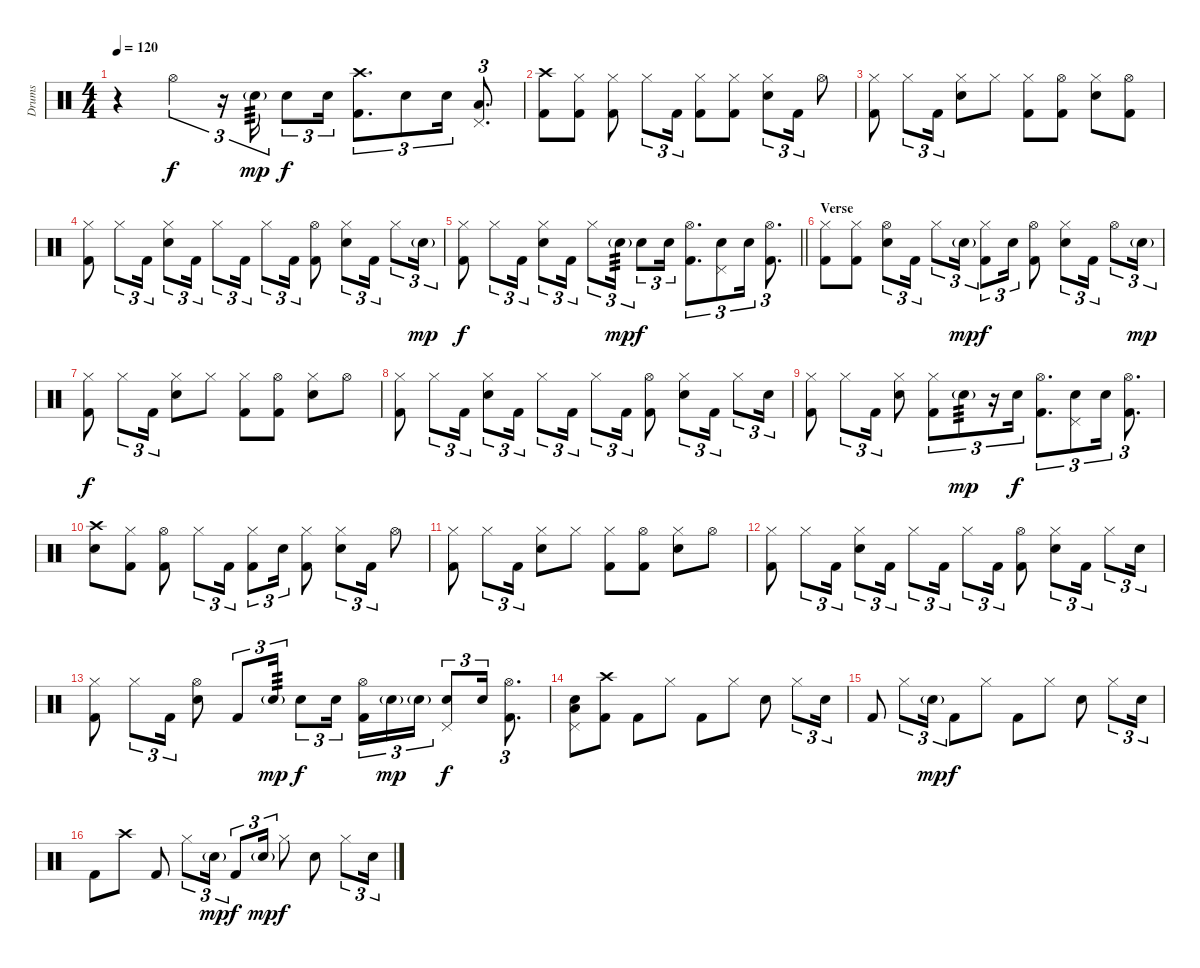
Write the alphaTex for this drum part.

\track ("Drums" "Drums") {instrument percussion}
\staff {score}
\articulation defaults
\ts (4 4)
\tempo 120
\clef neutral
\ks c
r.4{dy f} "Hi-Hat (open)".4{tu (3 2)} r.16{tu (3 2)} "Electric Snare (hit)"{g}.16{tu (3 2) tp 3 dy mp} "Electric Snare (hit)".8{tu (3 2) dy f} "Electric Snare (hit)".16{tu (3 2)} ("Crash high (hit)" "Kick (hit) 2").8{d tu (3 2)} "Electric Snare (hit)".8{tu (3 2)} "Electric Snare (hit)".16{tu (3 2)} ("Pedal Hi-Hat (hit)" "Low Tom (hit)").8{d tu (3 2)} |
("Crash high (hit)" "Kick (hit) 2").8 ("Hi-Hat (closed)" "Kick (hit) 2").8 ("Hi-Hat (closed)" "Kick (hit) 2").8 "Hi-Hat (closed)".8{tu (3 2)} "Kick (hit) 2".16{tu (3 2)} ("Hi-Hat (closed)" "Kick (hit) 2").8 ("Hi-Hat (closed)" "Kick (hit) 2").8 ("Hi-Hat (closed)" "Electric Snare (hit)").8{tu (3 2)} "Kick (hit) 2".16{tu (3 2)} "Hi-Hat (open)".8 |
("Hi-Hat (closed)" "Kick (hit) 2").8 "Hi-Hat (closed)".8{tu (3 2)} "Kick (hit) 2".16{tu (3 2)} ("Hi-Hat (closed)" "Electric Snare (hit)").8 "Hi-Hat (closed)".8 ("Hi-Hat (closed)" "Kick (hit) 2").8 ("Hi-Hat (open)" "Kick (hit) 2").8 ("Hi-Hat (closed)" "Electric Snare (hit)").8 ("Hi-Hat (open)" "Kick (hit) 2").8 |
("Hi-Hat (closed)" "Kick (hit) 2").8 "Hi-Hat (closed)".8{tu (3 2)} "Kick (hit) 2".16{tu (3 2)} ("Hi-Hat (closed)" "Electric Snare (hit)").8{tu (3 2)} "Kick (hit) 2".16{tu (3 2)} "Hi-Hat (closed)".8{tu (3 2)} "Kick (hit) 2".16{tu (3 2)} "Hi-Hat (closed)".8{tu (3 2)} "Kick (hit) 2".16{tu (3 2)} ("Hi-Hat (open)" "Kick (hit) 2").8 ("Hi-Hat (closed)" "Electric Snare (hit)").8{tu (3 2)} "Kick (hit) 2".16{tu (3 2)} "Hi-Hat (closed)".8{tu (3 2)} "Electric Snare (hit)"{g}.16{tu (3 2) dy mp} |
\barLineRight lightlight
("Hi-Hat (closed)" "Kick (hit) 2").8{dy f} "Hi-Hat (closed)".8{tu (3 2)} "Kick (hit) 2".16{tu (3 2)} ("Hi-Hat (closed)" "Electric Snare (hit)").8{tu (3 2)} "Kick (hit) 2".16{tu (3 2)} "Hi-Hat (closed)".8{tu (3 2)} "Electric Snare (hit)"{g}.16{tu (3 2) tp 3 dy mp} "Electric Snare (hit)".8{tu (3 2) dy f} "Electric Snare (hit)".16{tu (3 2)} ("Hi-Hat (open)" "Kick (hit) 2").8{d tu (3 2)} ("Pedal Hi-Hat (hit)" "Electric Snare (hit)").8{tu (3 2)} "Electric Snare (hit)".16{tu (3 2)} ("Hi-Hat (open)" "Kick (hit) 2").8{d tu (3 2)} |
\section ("" "Verse")
("Hi-Hat (closed)" "Kick (hit) 2").8 ("Hi-Hat (closed)" "Kick (hit) 2").8 ("Hi-Hat (open)" "Electric Snare (hit)").8{tu (3 2)} "Kick (hit) 2".16{tu (3 2)} "Hi-Hat (closed)".8{tu (3 2)} "Electric Snare (hit)"{g}.16{tu (3 2) dy mp} ("Hi-Hat (closed)" "Kick (hit) 2").8{tu (3 2) dy f} "Electric Snare (hit)".16{tu (3 2)} ("Hi-Hat (open)" "Kick (hit) 2").8 ("Hi-Hat (closed)" "Electric Snare (hit)").8{tu (3 2)} "Kick (hit) 2".16{tu (3 2)} "Hi-Hat (open)".8{tu (3 2)} "Electric Snare (hit)"{g}.16{tu (3 2) dy mp} |
("Hi-Hat (closed)" "Kick (hit) 2").8{dy f} "Hi-Hat (closed)".8{tu (3 2)} "Kick (hit) 2".16{tu (3 2)} ("Hi-Hat (closed)" "Electric Snare (hit)").8 "Hi-Hat (closed)".8 ("Hi-Hat (closed)" "Kick (hit) 2").8 ("Hi-Hat (open)" "Kick (hit) 2").8 ("Hi-Hat (closed)" "Electric Snare (hit)").8 "Hi-Hat (open)".8 |
("Hi-Hat (closed)" "Kick (hit) 2").8 "Hi-Hat (closed)".8{tu (3 2)} "Kick (hit) 2".16{tu (3 2)} ("Hi-Hat (closed)" "Electric Snare (hit)").8{tu (3 2)} "Kick (hit) 2".16{tu (3 2)} "Hi-Hat (closed)".8{tu (3 2)} "Kick (hit) 2".16{tu (3 2)} "Hi-Hat (closed)".8{tu (3 2)} "Kick (hit) 2".16{tu (3 2)} ("Hi-Hat (open)" "Kick (hit) 2").8 ("Hi-Hat (closed)" "Electric Snare (hit)").8{tu (3 2)} "Kick (hit) 2".16{tu (3 2)} "Hi-Hat (closed)".8{tu (3 2)} "Electric Snare (hit)".16{tu (3 2)} |
("Hi-Hat (closed)" "Kick (hit) 2").8 "Hi-Hat (closed)".8{tu (3 2)} "Kick (hit) 2".16{tu (3 2)} ("Hi-Hat (closed)" "Electric Snare (hit)").8 ("Hi-Hat (closed)" "Kick (hit) 2").8{tu (3 2)} "Electric Snare (hit)"{g}.8{tu (3 2) tp 3 dy mp} r.16{tu (3 2)} "Electric Snare (hit)".16{tu (3 2) dy f} ("Hi-Hat (open)" "Kick (hit) 2").8{d tu (3 2)} ("Pedal Hi-Hat (hit)" "Electric Snare (hit)").8{tu (3 2)} "Electric Snare (hit)".16{tu (3 2)} ("Hi-Hat (open)" "Kick (hit) 2").8{d tu (3 2)} |
("Crash high (hit)" "Electric Snare (hit)").8 ("Hi-Hat (closed)" "Kick (hit) 2").8 ("Hi-Hat (open)" "Kick (hit) 2").8 "Hi-Hat (closed)".8{tu (3 2)} "Kick (hit) 2".16{tu (3 2)} ("Hi-Hat (closed)" "Kick (hit) 2").8{tu (3 2)} "Electric Snare (hit)".16{tu (3 2)} ("Hi-Hat (closed)" "Kick (hit) 2").8 ("Hi-Hat (closed)" "Electric Snare (hit)").8{tu (3 2)} "Kick (hit) 2".16{tu (3 2)} "Hi-Hat (open)".8 |
("Hi-Hat (closed)" "Kick (hit) 2").8 "Hi-Hat (closed)".8{tu (3 2)} "Kick (hit) 2".16{tu (3 2)} ("Hi-Hat (closed)" "Electric Snare (hit)").8 "Hi-Hat (closed)".8 ("Hi-Hat (closed)" "Kick (hit) 2").8 ("Hi-Hat (open)" "Kick (hit) 2").8 ("Hi-Hat (closed)" "Electric Snare (hit)").8 "Hi-Hat (open)".8 |
("Hi-Hat (closed)" "Kick (hit) 2").8 "Hi-Hat (closed)".8{tu (3 2)} "Kick (hit) 2".16{tu (3 2)} ("Hi-Hat (closed)" "Electric Snare (hit)").8{tu (3 2)} "Kick (hit) 2".16{tu (3 2)} "Hi-Hat (closed)".8{tu (3 2)} "Kick (hit) 2".16{tu (3 2)} "Hi-Hat (closed)".8{tu (3 2)} "Kick (hit) 2".16{tu (3 2)} ("Hi-Hat (open)" "Kick (hit) 2").8 ("Hi-Hat (closed)" "Electric Snare (hit)").8{tu (3 2)} "Kick (hit) 2".16{tu (3 2)} "Hi-Hat (closed)".8{tu (3 2)} "Electric Snare (hit)".16{tu (3 2)} |
("Hi-Hat (closed)" "Kick (hit) 2").8 "Hi-Hat (closed)".8{tu (3 2)} "Kick (hit) 2".16{tu (3 2)} ("Hi-Hat (open)" "Electric Snare (hit)").8 "Kick (hit) 2".8{tu (3 2)} "Electric Snare (hit)"{g}.16{tu (3 2) tp 3 dy mp} "Electric Snare (hit)".8{tu (3 2) dy f} "Electric Snare (hit)".16{tu (3 2) beam splitsecondary} ("Hi-Hat (open)" "Kick (hit) 2").16{tu (3 2)} "Electric Snare (hit)"{g}.16{tu (3 2) dy mp} "Electric Snare (hit)"{g}.16{tu (3 2)} ("Pedal Hi-Hat (hit)" "Electric Snare (hit)").8{tu (3 2) dy f} "Electric Snare (hit)".16{tu (3 2)} ("Hi-Hat (open)" "Kick (hit) 2").8{d tu (3 2)} |
("Pedal Hi-Hat (hit)" "Electric Snare (hit)" "Low Floor Tom (hit)").8 ("Crash high (hit)" "Kick (hit) 2").8 "Kick (hit) 2".8 "Hi-Hat (closed)".8 "Kick (hit) 2".8 "Hi-Hat (closed)".8 "Electric Snare (hit)".8 "Hi-Hat (closed)".8{tu (3 2)} "Electric Snare (hit)".16{tu (3 2)} |
"Kick (hit) 2".8 "Hi-Hat (closed)".8{tu (3 2)} "Electric Snare (hit)"{g}.16{tu (3 2) dy mp} "Kick (hit) 2".8{dy f} "Hi-Hat (closed)".8 "Kick (hit) 2".8 "Hi-Hat (closed)".8 "Electric Snare (hit)".8 "Hi-Hat (closed)".8{tu (3 2)} "Electric Snare (hit)".16{tu (3 2)} |
"Kick (hit) 2".8 "Crash high (hit)".8 "Kick (hit) 2".8 "Hi-Hat (closed)".8{tu (3 2)} "Electric Snare (hit)"{g}.16{tu (3 2) dy mp} "Kick (hit) 2".8{tu (3 2) dy f} "Electric Snare (hit)"{g}.16{tu (3 2) dy mp} "Hi-Hat (closed)".8{dy f} "Electric Snare (hit)".8 "Hi-Hat (closed)".8{tu (3 2)} "Electric Snare (hit)".16{tu (3 2)}
